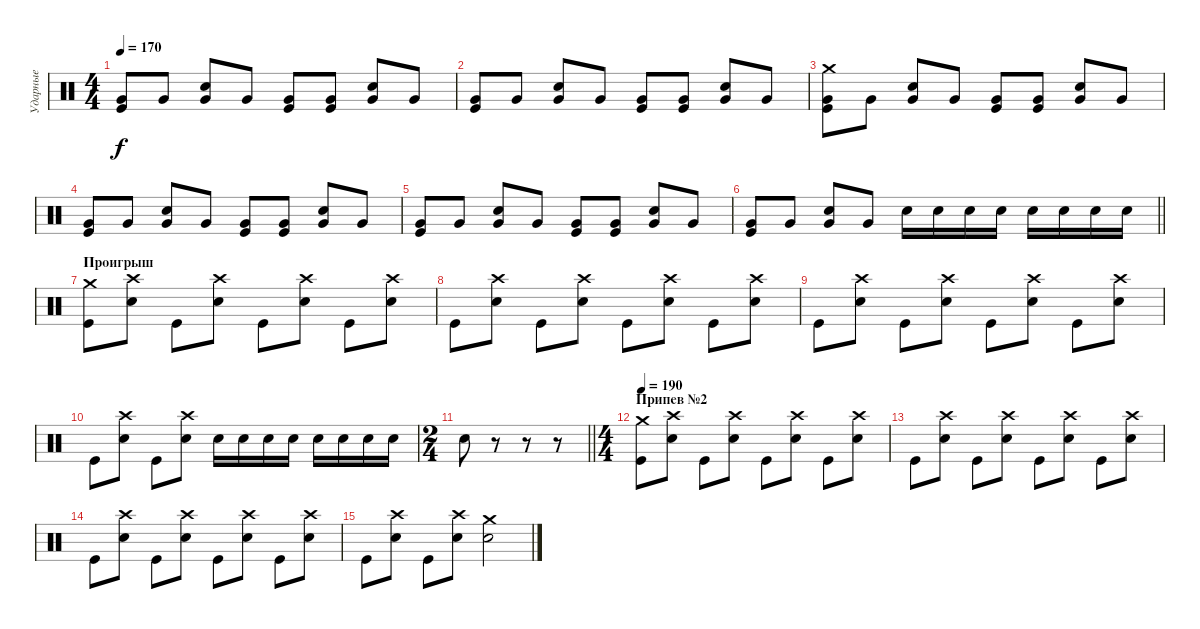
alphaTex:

\track ("Ударные" "Ударные") {instrument percussion}
\staff {score}
\articulation defaults
\ts (4 4)
\tempo 170
\clef neutral
\ks c
("Kick (hit)" "Very Low Tom (hit)").8{dy f} "Very Low Tom (hit)".8 ("Electric Snare (hit)" "Very Low Tom (hit)").8 "Very Low Tom (hit)".8 ("Kick (hit)" "Very Low Tom (hit)").8 ("Kick (hit)" "Very Low Tom (hit)").8 ("Electric Snare (hit)" "Very Low Tom (hit)").8 "Very Low Tom (hit)".8 |
("Kick (hit)" "Very Low Tom (hit)").8 "Very Low Tom (hit)".8 ("Electric Snare (hit)" "Very Low Tom (hit)").8 "Very Low Tom (hit)".8 ("Kick (hit)" "Very Low Tom (hit)").8 ("Kick (hit)" "Very Low Tom (hit)").8 ("Electric Snare (hit)" "Very Low Tom (hit)").8 "Very Low Tom (hit)".8 |
("Crash medium (hit)" "Kick (hit)" "Very Low Tom (hit)").8 "Very Low Tom (hit)".8 ("Electric Snare (hit)" "Very Low Tom (hit)").8 "Very Low Tom (hit)".8 ("Kick (hit)" "Very Low Tom (hit)").8 ("Kick (hit)" "Very Low Tom (hit)").8 ("Electric Snare (hit)" "Very Low Tom (hit)").8 "Very Low Tom (hit)".8 |
("Kick (hit)" "Very Low Tom (hit)").8 "Very Low Tom (hit)".8 ("Electric Snare (hit)" "Very Low Tom (hit)").8 "Very Low Tom (hit)".8 ("Kick (hit)" "Very Low Tom (hit)").8 ("Kick (hit)" "Very Low Tom (hit)").8 ("Electric Snare (hit)" "Very Low Tom (hit)").8 "Very Low Tom (hit)".8 |
("Kick (hit)" "Very Low Tom (hit)").8 "Very Low Tom (hit)".8 ("Electric Snare (hit)" "Very Low Tom (hit)").8 "Very Low Tom (hit)".8 ("Kick (hit)" "Very Low Tom (hit)").8 ("Kick (hit)" "Very Low Tom (hit)").8 ("Electric Snare (hit)" "Very Low Tom (hit)").8 "Very Low Tom (hit)".8 |
\barLineRight lightlight
("Kick (hit)" "Very Low Tom (hit)").8 "Very Low Tom (hit)".8 ("Electric Snare (hit)" "Very Low Tom (hit)").8 "Very Low Tom (hit)".8 "Electric Snare (hit)".16 "Electric Snare (hit)".16 "Electric Snare (hit)".16 "Electric Snare (hit)".16 "Electric Snare (hit)".16 "Electric Snare (hit)".16 "Electric Snare (hit)".16 "Electric Snare (hit)".16 |
\section ("" "Проигрыш")
("Crash medium (hit)" "Kick (hit)").8 ("Crash high (hit)" "Electric Snare (hit)").8 "Kick (hit)".8 ("Crash high (hit)" "Electric Snare (hit)").8 "Kick (hit)".8 ("Crash high (hit)" "Electric Snare (hit)").8 "Kick (hit)".8 ("Crash high (hit)" "Electric Snare (hit)").8 |
"Kick (hit)".8 ("Crash high (hit)" "Electric Snare (hit)").8 "Kick (hit)".8 ("Crash high (hit)" "Electric Snare (hit)").8 "Kick (hit)".8 ("Crash high (hit)" "Electric Snare (hit)").8 "Kick (hit)".8 ("Crash high (hit)" "Electric Snare (hit)").8 |
"Kick (hit)".8 ("Crash high (hit)" "Electric Snare (hit)").8 "Kick (hit)".8 ("Crash high (hit)" "Electric Snare (hit)").8 "Kick (hit)".8 ("Crash high (hit)" "Electric Snare (hit)").8 "Kick (hit)".8 ("Crash high (hit)" "Electric Snare (hit)").8 |
"Kick (hit)".8 ("Crash high (hit)" "Electric Snare (hit)").8 "Kick (hit)".8 ("Crash high (hit)" "Electric Snare (hit)").8 "Electric Snare (hit)".16 "Electric Snare (hit)".16 "Electric Snare (hit)".16 "Electric Snare (hit)".16 "Electric Snare (hit)".16 "Electric Snare (hit)".16 "Electric Snare (hit)".16 "Electric Snare (hit)".16 |
\ts (2 4)
\barLineRight lightlight "Electric Snare (hit)".8
r.8 r.8 r.8 |
\ts (4 4)
\section ("" "Припев №2")
\tempo 190
("Crash medium (hit)" "Kick (hit)").8 ("Crash high (hit)" "Electric Snare (hit)").8 "Kick (hit)".8 ("Crash high (hit)" "Electric Snare (hit)").8 "Kick (hit)".8 ("Crash high (hit)" "Electric Snare (hit)").8 "Kick (hit)".8 ("Crash high (hit)" "Electric Snare (hit)").8 |
"Kick (hit)".8 ("Crash high (hit)" "Electric Snare (hit)").8 "Kick (hit)".8 ("Crash high (hit)" "Electric Snare (hit)").8 "Kick (hit)".8 ("Crash high (hit)" "Electric Snare (hit)").8 "Kick (hit)".8 ("Crash high (hit)" "Electric Snare (hit)").8 |
"Kick (hit)".8 ("Crash high (hit)" "Electric Snare (hit)").8 "Kick (hit)".8 ("Crash high (hit)" "Electric Snare (hit)").8 "Kick (hit)".8 ("Crash high (hit)" "Electric Snare (hit)").8 "Kick (hit)".8 ("Crash high (hit)" "Electric Snare (hit)").8 |
"Kick (hit)".8 ("Crash high (hit)" "Electric Snare (hit)").8 "Kick (hit)".8 ("Crash high (hit)" "Electric Snare (hit)").8 ("Crash medium (hit)" "Electric Snare (hit)").2
